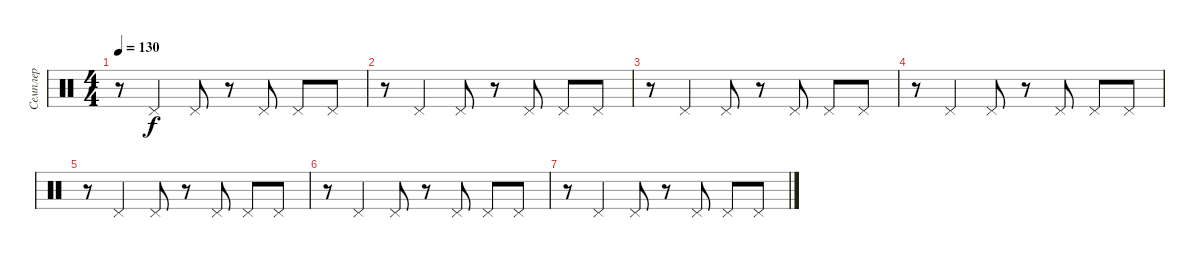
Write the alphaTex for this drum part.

\track ("Семплер" "Семплер") {instrument percussion}
\staff {score}
\articulation defaults
\ts (4 4)
\tempo 130
\clef neutral
\ks c
r.8{dy f} "Pedal Hi-Hat (hit)".4 "Pedal Hi-Hat (hit)".8 r.8 "Pedal Hi-Hat (hit)".8 "Pedal Hi-Hat (hit)".8 "Pedal Hi-Hat (hit)".8 |
r.8 "Pedal Hi-Hat (hit)".4 "Pedal Hi-Hat (hit)".8 r.8 "Pedal Hi-Hat (hit)".8 "Pedal Hi-Hat (hit)".8 "Pedal Hi-Hat (hit)".8 |
r.8 "Pedal Hi-Hat (hit)".4 "Pedal Hi-Hat (hit)".8 r.8 "Pedal Hi-Hat (hit)".8 "Pedal Hi-Hat (hit)".8 "Pedal Hi-Hat (hit)".8 |
r.8 "Pedal Hi-Hat (hit)".4 "Pedal Hi-Hat (hit)".8 r.8 "Pedal Hi-Hat (hit)".8 "Pedal Hi-Hat (hit)".8 "Pedal Hi-Hat (hit)".8 |
r.8 "Pedal Hi-Hat (hit)".4 "Pedal Hi-Hat (hit)".8 r.8 "Pedal Hi-Hat (hit)".8 "Pedal Hi-Hat (hit)".8 "Pedal Hi-Hat (hit)".8 |
r.8 "Pedal Hi-Hat (hit)".4 "Pedal Hi-Hat (hit)".8 r.8 "Pedal Hi-Hat (hit)".8 "Pedal Hi-Hat (hit)".8 "Pedal Hi-Hat (hit)".8 |
r.8 "Pedal Hi-Hat (hit)".4 "Pedal Hi-Hat (hit)".8 r.8 "Pedal Hi-Hat (hit)".8 "Pedal Hi-Hat (hit)".8 "Pedal Hi-Hat (hit)".8
